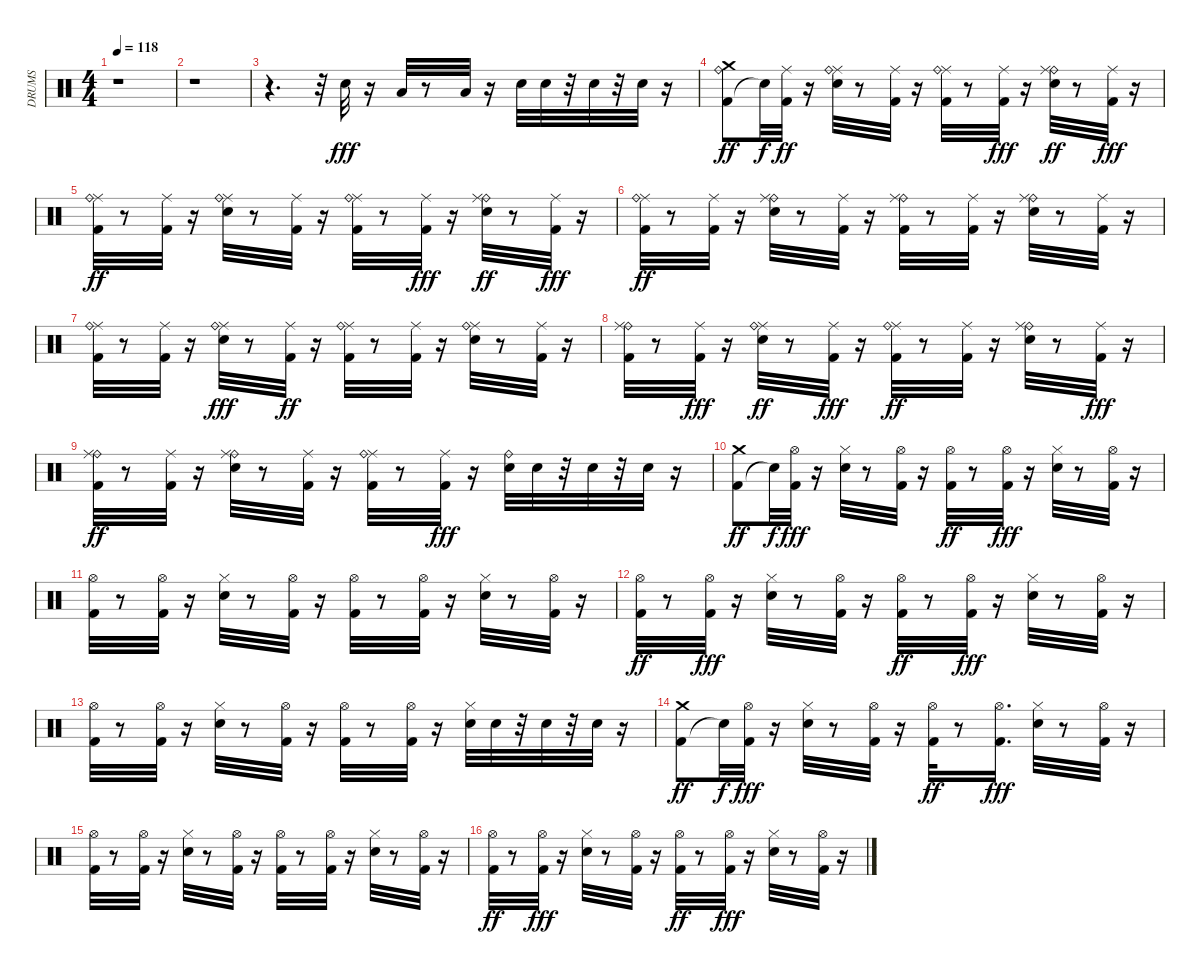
\track ("DRUMS" "DRUMS") {instrument percussion}
\staff {score}
\articulation defaults
\ts (4 4)
\tempo 118
\clef neutral
\ks c
r.1{dy fff} |
r.1 |
r.4{d} r.32 "Snare (hit) 2".32 r.16 "Low Tom (hit)".32 r.8 "Low Floor Tom (hit)".32 r.16 "Snare (hit) 2".32 "Snare (hit) 2".32 r.32 "Snare (hit) 2".32 r.32 "Snare (hit) 2".32 r.16 |
("Kick (hit) 2" "Crash medium (hit)" "Ride (bell)").8{dy ff} "Snare (hit)"{t}.32{dy f} ("Kick (hit) 2" "Ride (middle)").32{dy ff} r.16 ("Snare (hit) 2" "Ride (middle)" "Ride (bell)").32 r.8 ("Kick (hit) 2" "Ride (middle)").32 r.16 ("Kick (hit) 2" "Ride (middle)" "Ride (bell)").32 r.8 ("Ride (middle)" "Kick (hit) 2").32{dy fff} r.16 ("Ride (bell)" "Snare (hit) 2" "Ride (middle)").32{dy ff} r.8 ("Ride (middle)" "Kick (hit) 2").32{dy fff} r.16 |
("Kick (hit) 2" "Ride (middle)" "Ride (bell)").32{dy ff} r.8 ("Kick (hit) 2" "Ride (middle)").32 r.16 ("Snare (hit) 2" "Ride (middle)" "Ride (bell)").32 r.8 ("Kick (hit) 2" "Ride (middle)").32 r.16 ("Kick (hit) 2" "Ride (middle)" "Ride (bell)").32 r.8 ("Ride (middle)" "Kick (hit) 2").32{dy fff} r.16 ("Ride (bell)" "Snare (hit) 2" "Ride (middle)").32{dy ff} r.8 ("Ride (middle)" "Kick (hit) 2").32{dy fff} r.16 |
("Kick (hit) 2" "Ride (middle)" "Ride (bell)").32{dy ff} r.8 ("Kick (hit) 2" "Ride (middle)").32 r.16 ("Ride (bell)" "Snare (hit) 2" "Ride (middle)").32 r.8 ("Kick (hit) 2" "Ride (middle)").32 r.16 ("Ride (bell)" "Kick (hit) 2" "Ride (middle)").32 r.8 ("Kick (hit) 2" "Ride (middle)").32 r.16 ("Ride (bell)" "Snare (hit) 2" "Ride (middle)").32 r.8 ("Kick (hit) 2" "Ride (middle)").32 r.16 |
("Kick (hit) 2" "Ride (middle)" "Ride (bell)").32 r.8 ("Kick (hit) 2" "Ride (middle)").32 r.16 ("Ride (middle)" "Snare (hit) 2" "Ride (bell)").32{dy fff} r.8 ("Kick (hit) 2" "Ride (middle)").32{dy ff} r.16 ("Kick (hit) 2" "Ride (middle)" "Ride (bell)").32 r.8 ("Kick (hit) 2" "Ride (middle)").32 r.16 ("Snare (hit) 2" "Ride (middle)" "Ride (bell)").32 r.8 ("Kick (hit) 2" "Ride (middle)").32 r.16 |
("Ride (bell)" "Kick (hit) 2" "Ride (middle)").32 r.8 ("Ride (middle)" "Kick (hit) 2").32{dy fff} r.16 ("Snare (hit) 2" "Ride (middle)" "Ride (bell)").32{dy ff} r.8 ("Ride (middle)" "Kick (hit) 2").32{dy fff} r.16 ("Kick (hit) 2" "Ride (middle)" "Ride (bell)").32{dy ff} r.8 ("Kick (hit) 2" "Ride (middle)").32 r.16 ("Ride (bell)" "Snare (hit) 2" "Ride (middle)").32 r.8 ("Ride (middle)" "Kick (hit) 2").32{dy fff} r.16 |
("Ride (bell)" "Kick (hit) 2" "Ride (middle)").32{dy ff} r.8 ("Kick (hit) 2" "Ride (middle)").32 r.16 ("Ride (bell)" "Snare (hit) 2" "Ride (middle)").32 r.8 ("Kick (hit) 2" "Ride (middle)").32 r.16 ("Kick (hit) 2" "Ride (middle)" "Ride (bell)").32 r.8 ("Ride (middle)" "Kick (hit) 2").32{dy fff} r.16 ("Ride (bell)" "Snare (hit) 2").32 "Snare (hit) 2".32 r.32 "Snare (hit) 2".32 r.32 "Snare (hit) 2".32 r.16 |
("Kick (hit) 2" "Crash medium (hit)").8{dy ff} "Snare (hit)"{t}.32{dy f} ("Kick (hit) 2" "Hi-Hat (open)").32{dy fff} r.16 ("Hi-Hat (closed)" "Snare (hit) 2").32 r.8 ("Kick (hit) 2" "Hi-Hat (open)").32 r.16 ("Kick (hit) 2" "Hi-Hat (open)").32{dy ff} r.8 ("Hi-Hat (open)" "Kick (hit) 2").32{dy fff} r.16 ("Hi-Hat (closed)" "Snare (hit) 2").32 r.8 ("Hi-Hat (open)" "Kick (hit) 2").32 r.16 |
("Hi-Hat (open)" "Kick (hit) 2").32 r.8 ("Hi-Hat (open)" "Kick (hit) 2").32 r.16 ("Snare (hit) 2" "Hi-Hat (closed)").32 r.8 ("Hi-Hat (open)" "Kick (hit) 2").32 r.16 ("Hi-Hat (open)" "Kick (hit) 2").32 r.8 ("Hi-Hat (open)" "Kick (hit) 2").32 r.16 ("Hi-Hat (closed)" "Snare (hit) 2").32 r.8 ("Hi-Hat (open)" "Kick (hit) 2").32 r.16 |
("Kick (hit) 2" "Hi-Hat (open)").32{dy ff} r.8 ("Hi-Hat (open)" "Kick (hit) 2").32{dy fff} r.16 ("Hi-Hat (closed)" "Snare (hit) 2").32 r.8 ("Kick (hit) 2" "Hi-Hat (open)").32 r.16 ("Kick (hit) 2" "Hi-Hat (open)").32{dy ff} r.8 ("Hi-Hat (open)" "Kick (hit) 2").32{dy fff} r.16 ("Snare (hit) 2" "Hi-Hat (closed)").32 r.8 ("Hi-Hat (open)" "Kick (hit) 2").32 r.16 |
("Hi-Hat (open)" "Kick (hit) 2").32 r.8 ("Hi-Hat (open)" "Kick (hit) 2").32 r.16 ("Hi-Hat (closed)" "Snare (hit) 2").32 r.8 ("Hi-Hat (open)" "Kick (hit) 2").32 r.16 ("Hi-Hat (open)" "Kick (hit) 2").32 r.8 ("Hi-Hat (open)" "Kick (hit) 2").32 r.16 ("Hi-Hat (closed)" "Snare (hit) 2").32 "Snare (hit) 2".32 r.32 "Snare (hit) 2".32 r.32 "Snare (hit) 2".32 r.16 |
("Kick (hit) 2" "Crash medium (hit)").8{dy ff} "Snare (hit)"{t}.32{dy f} ("Hi-Hat (open)" "Kick (hit) 2").32{dy fff} r.16 ("Hi-Hat (closed)" "Snare (hit) 2").32 r.8 ("Kick (hit) 2" "Hi-Hat (open)").32 r.16 ("Kick (hit) 2" "Hi-Hat (open)").32{dy ff} r.8 ("Hi-Hat (open)" "Kick (hit) 2").16{d dy fff} ("Hi-Hat (closed)" "Snare (hit) 2").32 r.8 ("Hi-Hat (open)" "Kick (hit) 2").32 r.16 |
("Hi-Hat (open)" "Kick (hit) 2").32 r.8 ("Hi-Hat (open)" "Kick (hit) 2").32 r.16 ("Snare (hit) 2" "Hi-Hat (closed)").32 r.8 ("Hi-Hat (open)" "Kick (hit) 2").32 r.16 ("Hi-Hat (open)" "Kick (hit) 2").32 r.8 ("Hi-Hat (open)" "Kick (hit) 2").32 r.16 ("Hi-Hat (closed)" "Snare (hit) 2").32 r.8 ("Hi-Hat (open)" "Kick (hit) 2").32 r.16 |
("Kick (hit) 2" "Hi-Hat (open)").32{dy ff} r.8 ("Hi-Hat (open)" "Kick (hit) 2").32{dy fff} r.16 ("Hi-Hat (closed)" "Snare (hit) 2").32 r.8 ("Kick (hit) 2" "Hi-Hat (open)").32 r.16 ("Kick (hit) 2" "Hi-Hat (open)").32{dy ff} r.8 ("Hi-Hat (open)" "Kick (hit) 2").32{dy fff} r.16 ("Snare (hit) 2" "Hi-Hat (closed)").32 r.8 ("Hi-Hat (open)" "Kick (hit) 2").32 r.16
